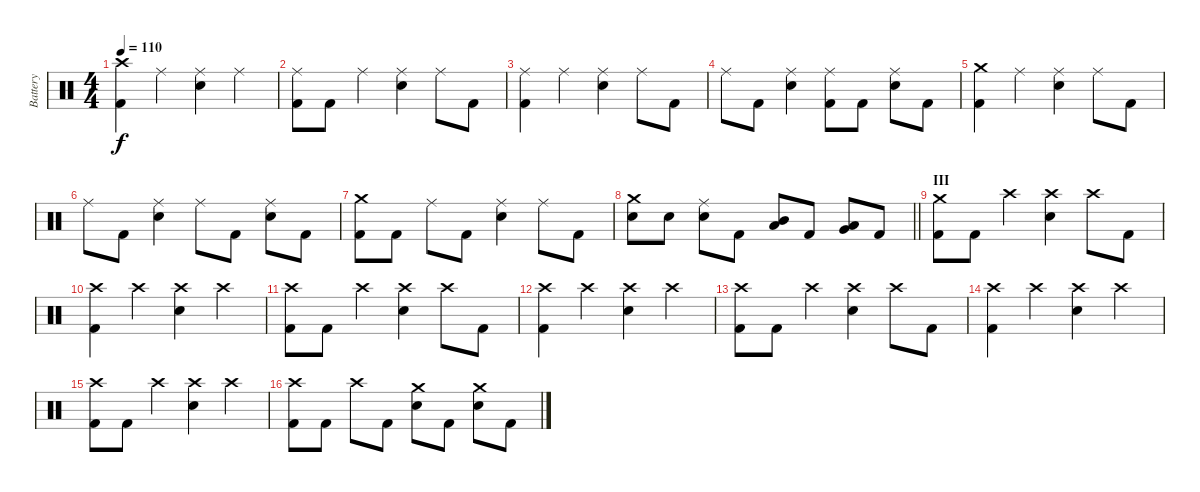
\track ("Battery" "Battery") {instrument percussion}
\staff {score}
\articulation defaults
\ts (4 4)
\tempo 110
\clef neutral
\ks c
("Crash high (hit)" "Kick (hit) 2").4{dy f} "Ride (middle)".4 ("Ride (middle)" "Electric Snare (hit)").4 "Ride (middle)".4 |
("Ride (middle)" "Kick (hit) 2").8 "Kick (hit) 2".8 "Ride (middle)".4 ("Ride (middle)" "Electric Snare (hit)").4 "Ride (middle)".8 "Kick (hit) 2".8 |
("Ride (middle)" "Kick (hit) 2").4 "Ride (middle)".4 ("Ride (middle)" "Electric Snare (hit)").4 "Ride (middle)".8 "Kick (hit) 2".8 |
"Ride (middle)".8 "Kick (hit) 2".8 ("Ride (middle)" "Electric Snare (hit)").4 ("Ride (middle)" "Kick (hit) 2").8 "Kick (hit) 2".8 ("Ride (middle)" "Electric Snare (hit)").8 "Kick (hit) 2".8 |
("Crash medium (hit)" "Kick (hit) 2").4 "Ride (middle)".4 ("Ride (middle)" "Electric Snare (hit)").4 "Ride (middle)".8 "Kick (hit) 2".8 |
"Ride (middle)".8 "Kick (hit) 2".8 ("Ride (middle)" "Electric Snare (hit)").4 "Ride (middle)".8 "Kick (hit) 2".8 ("Ride (middle)" "Electric Snare (hit)").8 "Kick (hit) 2".8 |
("Crash medium (hit)" "Kick (hit) 2").8 "Kick (hit) 2".8 "Ride (middle)".8 "Kick (hit) 2".8 ("Ride (middle)" "Electric Snare (hit)").4 "Ride (middle)".8 "Kick (hit) 2".8 |
\barLineRight lightlight
("Crash medium (hit)" "Electric Snare (hit)").8 "Electric Snare (hit)".8 ("Ride (middle)" "Electric Snare (hit)").8 "Kick (hit) 2".8 ("Mid Tom (hit)" "Low Tom (hit)").8 "Kick (hit) 2".8 ("Low Tom (hit)" "Very Low Tom (hit)").8 "Kick (hit) 2".8 |
\section ("" "III")
("Crash medium (hit)" "Kick (hit) 2").8 "Kick (hit) 2".8 "Crash high (hit)".4 ("Crash high (hit)" "Electric Snare (hit)").4 "Crash high (hit)".8 "Kick (hit) 2".8 |
("Crash high (hit)" "Kick (hit) 2").4 "Crash high (hit)".4 ("Crash high (hit)" "Electric Snare (hit)").4 "Crash high (hit)".4 |
("Crash high (hit)" "Kick (hit) 2").8 "Kick (hit) 2".8 "Crash high (hit)".4 ("Crash high (hit)" "Electric Snare (hit)").4 "Crash high (hit)".8 "Kick (hit) 2".8 |
("Crash high (hit)" "Kick (hit) 2").4 "Crash high (hit)".4 ("Crash high (hit)" "Electric Snare (hit)").4 "Crash high (hit)".4 |
("Crash high (hit)" "Kick (hit) 2").8 "Kick (hit) 2".8 "Crash high (hit)".4 ("Crash high (hit)" "Electric Snare (hit)").4 "Crash high (hit)".8 "Kick (hit) 2".8 |
("Crash high (hit)" "Kick (hit) 2").4 "Crash high (hit)".4 ("Crash high (hit)" "Electric Snare (hit)").4 "Crash high (hit)".4 |
("Crash high (hit)" "Kick (hit) 2").8 "Kick (hit) 2".8 "Crash high (hit)".4 ("Crash high (hit)" "Electric Snare (hit)").4 "Crash high (hit)".4 |
("Crash high (hit)" "Kick (hit) 2").8 "Kick (hit) 2".8 "Crash high (hit)".8 "Kick (hit) 2".8 ("Crash medium (hit)" "Electric Snare (hit)").8 "Kick (hit) 2".8 ("Crash medium (hit)" "Electric Snare (hit)").8 "Kick (hit) 2".8
